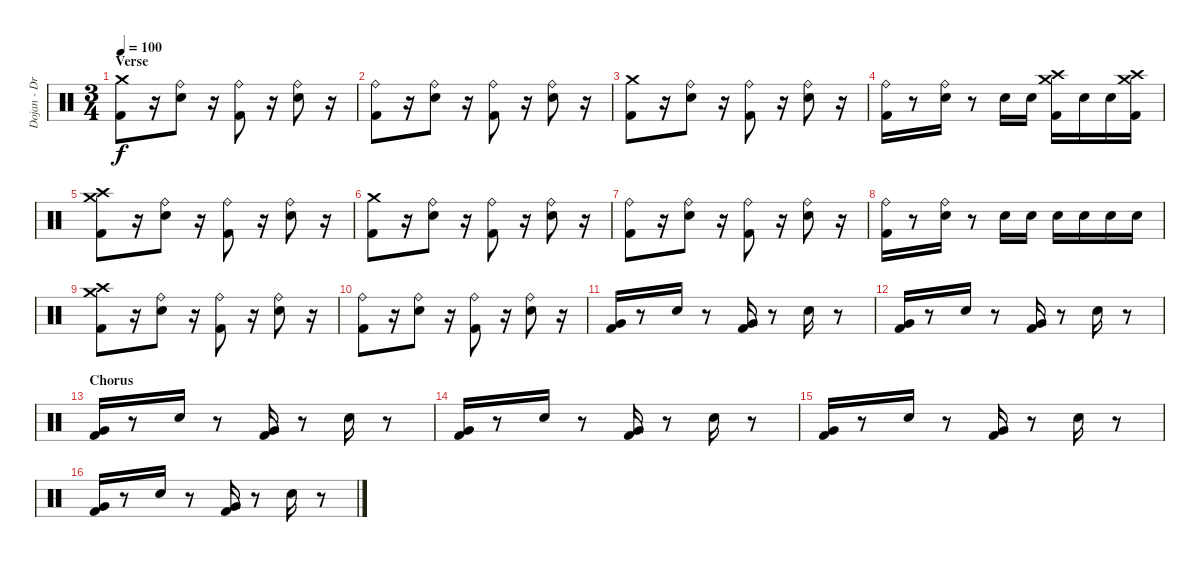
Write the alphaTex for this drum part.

\track ("Dojan - Drums" "Dojan - Dr") {instrument percussion}
\staff {score}
\articulation defaults
\ts (3 4)
\section ("" "Verse")
\tempo 100
\clef neutral
\ks c
("Crash medium (hit)" "Kick (hit) 2").8{dy f} r.16 ("Ride (bell)" "Snare (hit) 2").8 r.16 ("Ride (bell)" "Kick (hit) 2").8 r.16 ("Ride (bell)" "Snare (hit) 2").8 r.16 |
("Ride (bell)" "Kick (hit) 2").8 r.16 ("Ride (bell)" "Snare (hit) 2").8 r.16 ("Ride (bell)" "Kick (hit) 2").8 r.16 ("Ride (bell)" "Snare (hit) 2").8 r.16 |
("Crash medium (hit)" "Kick (hit) 2").8 r.16 ("Ride (bell)" "Snare (hit) 2").8 r.16 ("Ride (bell)" "Kick (hit) 2").8 r.16 ("Ride (bell)" "Snare (hit) 2").8 r.16 |
("Ride (bell)" "Kick (hit) 2").16 r.8 ("Ride (bell)" "Snare (hit) 2").16 r.8 "Snare (hit) 2".16 "Snare (hit) 2".16 ("Crash high (hit)" "Crash medium (hit)" "Kick (hit) 2").16 "Snare (hit) 2".16 "Snare (hit) 2".16 ("Crash high (hit)" "Crash medium (hit)" "Kick (hit) 2").16 |
("Crash high (hit)" "Crash medium (hit)" "Kick (hit) 2").8 r.16 ("Ride (bell)" "Snare (hit) 2").8 r.16 ("Ride (bell)" "Kick (hit) 2").8 r.16 ("Ride (bell)" "Snare (hit) 2").8 r.16 |
("Crash medium (hit)" "Kick (hit) 2").8 r.16 ("Ride (bell)" "Snare (hit) 2").8 r.16 ("Ride (bell)" "Kick (hit) 2").8 r.16 ("Ride (bell)" "Snare (hit) 2").8 r.16 |
("Ride (bell)" "Kick (hit) 2").8 r.16 ("Ride (bell)" "Snare (hit) 2").8 r.16 ("Ride (bell)" "Kick (hit) 2").8 r.16 ("Ride (bell)" "Snare (hit) 2").8 r.16 |
("Ride (bell)" "Kick (hit) 2").16 r.8 ("Ride (bell)" "Snare (hit) 2").16 r.8 "Snare (hit) 2".16 "Snare (hit) 2".16 "Snare (hit) 2".16 "Snare (hit) 2".16 "Snare (hit) 2".16 "Snare (hit) 2".16 |
("Crash high (hit)" "Crash medium (hit)" "Kick (hit) 2").8 r.16 ("Ride (bell)" "Snare (hit) 2").8 r.16 ("Ride (bell)" "Kick (hit) 2").8 r.16 ("Ride (bell)" "Snare (hit) 2").8 r.16 |
("Ride (bell)" "Kick (hit) 2").8 r.16 ("Ride (bell)" "Snare (hit) 2").8 r.16 ("Ride (bell)" "Kick (hit) 2").8 r.16 ("Ride (bell)" "Snare (hit) 2").8 r.16 |
("Very Low Tom (hit)" "Kick (hit) 2").16 r.8 "Snare (hit) 2".16 r.8 ("Very Low Tom (hit)" "Kick (hit) 2").16 r.8 "Snare (hit) 2".16 r.8 |
("Very Low Tom (hit)" "Kick (hit) 2").16 r.8 "Snare (hit) 2".16 r.8 ("Very Low Tom (hit)" "Kick (hit) 2").16 r.8 "Snare (hit) 2".16 r.8 |
\section ("" "Chorus")
("Very Low Tom (hit)" "Kick (hit) 2").16 r.8 "Snare (hit) 2".16 r.8 ("Very Low Tom (hit)" "Kick (hit) 2").16 r.8 "Snare (hit) 2".16 r.8 |
("Very Low Tom (hit)" "Kick (hit) 2").16 r.8 "Snare (hit) 2".16 r.8 ("Very Low Tom (hit)" "Kick (hit) 2").16 r.8 "Snare (hit) 2".16 r.8 |
("Very Low Tom (hit)" "Kick (hit) 2").16 r.8 "Snare (hit) 2".16 r.8 ("Very Low Tom (hit)" "Kick (hit) 2").16 r.8 "Snare (hit) 2".16 r.8 |
("Very Low Tom (hit)" "Kick (hit) 2").16 r.8 "Snare (hit) 2".16 r.8 ("Very Low Tom (hit)" "Kick (hit) 2").16 r.8 "Snare (hit) 2".16 r.8
